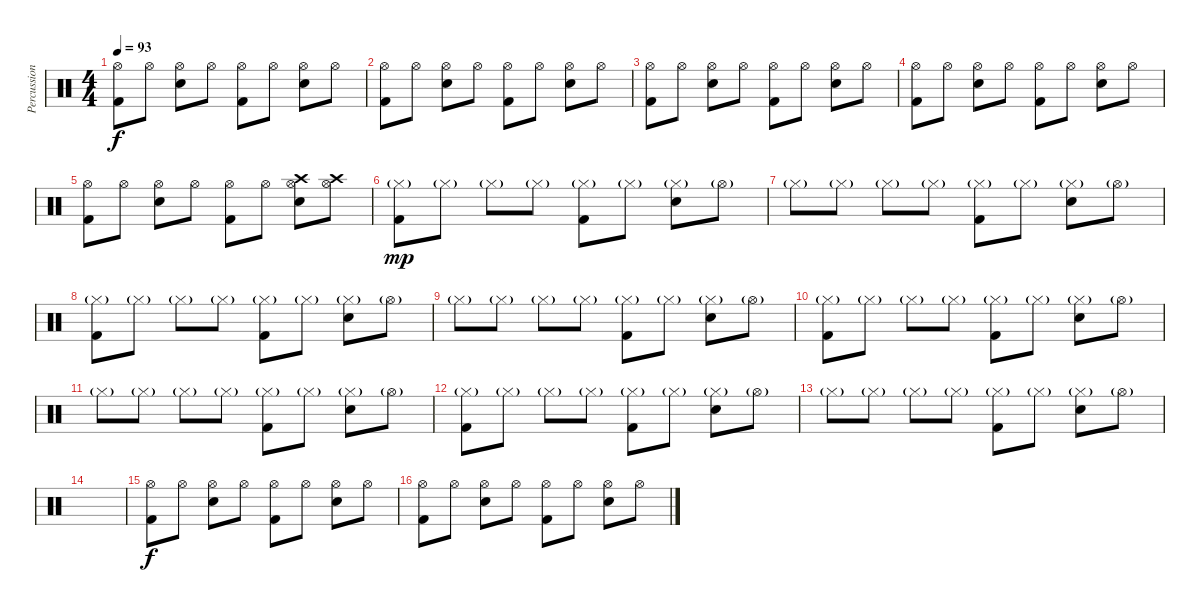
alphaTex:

\track ("Percussion" "Percussion") {instrument percussion}
\staff {score}
\articulation defaults
\ts (4 4)
\tempo 93
\clef neutral
\ks c
("Kick (hit) 2" "Hi-Hat (open)").8{dy f} "Hi-Hat (open)".8 ("Electric Snare (hit)" "Hi-Hat (open)").8 "Hi-Hat (open)".8 ("Kick (hit) 2" "Hi-Hat (open)").8 "Hi-Hat (open)".8 ("Electric Snare (hit)" "Hi-Hat (open)").8 "Hi-Hat (open)".8 |
("Kick (hit) 2" "Hi-Hat (open)").8 "Hi-Hat (open)".8 ("Electric Snare (hit)" "Hi-Hat (open)").8 "Hi-Hat (open)".8 ("Kick (hit) 2" "Hi-Hat (open)").8 "Hi-Hat (open)".8 ("Electric Snare (hit)" "Hi-Hat (open)").8 "Hi-Hat (open)".8 |
("Kick (hit) 2" "Hi-Hat (open)").8 "Hi-Hat (open)".8 ("Electric Snare (hit)" "Hi-Hat (open)").8 "Hi-Hat (open)".8 ("Kick (hit) 2" "Hi-Hat (open)").8 "Hi-Hat (open)".8 ("Electric Snare (hit)" "Hi-Hat (open)").8 "Hi-Hat (open)".8 |
("Kick (hit) 2" "Hi-Hat (open)").8 "Hi-Hat (open)".8 ("Electric Snare (hit)" "Hi-Hat (open)").8 "Hi-Hat (open)".8 ("Kick (hit) 2" "Hi-Hat (open)").8 "Hi-Hat (open)".8 ("Electric Snare (hit)" "Hi-Hat (open)").8 "Hi-Hat (open)".8 |
("Kick (hit) 2" "Hi-Hat (open)").8 "Hi-Hat (open)".8 ("Electric Snare (hit)" "Hi-Hat (open)").8 "Hi-Hat (open)".8 ("Kick (hit) 2" "Hi-Hat (open)").8 "Hi-Hat (open)".8 ("Crash high (hit)" "Electric Snare (hit)" "Hi-Hat (open)").8 ("Crash high (hit)" "Hi-Hat (open)").8 |
("Kick (hit) 2" "Hi-Hat (closed)"{g}).8{dy mp} "Hi-Hat (closed)"{g}.8 "Hi-Hat (closed)"{g}.8 "Hi-Hat (closed)"{g}.8 ("Kick (hit) 2" "Hi-Hat (closed)"{g}).8 "Hi-Hat (closed)"{g}.8 ("Electric Snare (hit)" "Hi-Hat (closed)"{g}).8 "Hi-Hat (open)"{g}.8 |
"Hi-Hat (closed)"{g}.8 "Hi-Hat (closed)"{g}.8 "Hi-Hat (closed)"{g}.8 "Hi-Hat (closed)"{g}.8 ("Kick (hit) 2" "Hi-Hat (closed)"{g}).8 "Hi-Hat (closed)"{g}.8 ("Electric Snare (hit)" "Hi-Hat (closed)"{g}).8 "Hi-Hat (open)"{g}.8 |
("Kick (hit) 2" "Hi-Hat (closed)"{g}).8 "Hi-Hat (closed)"{g}.8 "Hi-Hat (closed)"{g}.8 "Hi-Hat (closed)"{g}.8 ("Kick (hit) 2" "Hi-Hat (closed)"{g}).8 "Hi-Hat (closed)"{g}.8 ("Electric Snare (hit)" "Hi-Hat (closed)"{g}).8 "Hi-Hat (open)"{g}.8 |
"Hi-Hat (closed)"{g}.8 "Hi-Hat (closed)"{g}.8 "Hi-Hat (closed)"{g}.8 "Hi-Hat (closed)"{g}.8 ("Kick (hit) 2" "Hi-Hat (closed)"{g}).8 "Hi-Hat (closed)"{g}.8 ("Electric Snare (hit)" "Hi-Hat (closed)"{g}).8 "Hi-Hat (open)"{g}.8 |
("Kick (hit) 2" "Hi-Hat (closed)"{g}).8 "Hi-Hat (closed)"{g}.8 "Hi-Hat (closed)"{g}.8 "Hi-Hat (closed)"{g}.8 ("Kick (hit) 2" "Hi-Hat (closed)"{g}).8 "Hi-Hat (closed)"{g}.8 ("Electric Snare (hit)" "Hi-Hat (closed)"{g}).8 "Hi-Hat (open)"{g}.8 |
"Hi-Hat (closed)"{g}.8 "Hi-Hat (closed)"{g}.8 "Hi-Hat (closed)"{g}.8 "Hi-Hat (closed)"{g}.8 ("Kick (hit) 2" "Hi-Hat (closed)"{g}).8 "Hi-Hat (closed)"{g}.8 ("Electric Snare (hit)" "Hi-Hat (closed)"{g}).8 "Hi-Hat (open)"{g}.8 |
("Kick (hit) 2" "Hi-Hat (closed)"{g}).8 "Hi-Hat (closed)"{g}.8 "Hi-Hat (closed)"{g}.8 "Hi-Hat (closed)"{g}.8 ("Kick (hit) 2" "Hi-Hat (closed)"{g}).8 "Hi-Hat (closed)"{g}.8 ("Electric Snare (hit)" "Hi-Hat (closed)"{g}).8 "Hi-Hat (open)"{g}.8 |
"Hi-Hat (closed)"{g}.8 "Hi-Hat (closed)"{g}.8 "Hi-Hat (closed)"{g}.8 "Hi-Hat (closed)"{g}.8 ("Kick (hit) 2" "Hi-Hat (closed)"{g}).8 "Hi-Hat (closed)"{g}.8 ("Electric Snare (hit)" "Hi-Hat (closed)"{g}).8 "Hi-Hat (open)"{g}.8 |
|
("Kick (hit) 2" "Hi-Hat (open)").8{dy f} "Hi-Hat (open)".8 ("Electric Snare (hit)" "Hi-Hat (open)").8 "Hi-Hat (open)".8 ("Kick (hit) 2" "Hi-Hat (open)").8 "Hi-Hat (open)".8 ("Electric Snare (hit)" "Hi-Hat (open)").8 "Hi-Hat (open)".8 |
("Kick (hit) 2" "Hi-Hat (open)").8 "Hi-Hat (open)".8 ("Electric Snare (hit)" "Hi-Hat (open)").8 "Hi-Hat (open)".8 ("Kick (hit) 2" "Hi-Hat (open)").8 "Hi-Hat (open)".8 ("Electric Snare (hit)" "Hi-Hat (open)").8 "Hi-Hat (open)".8
